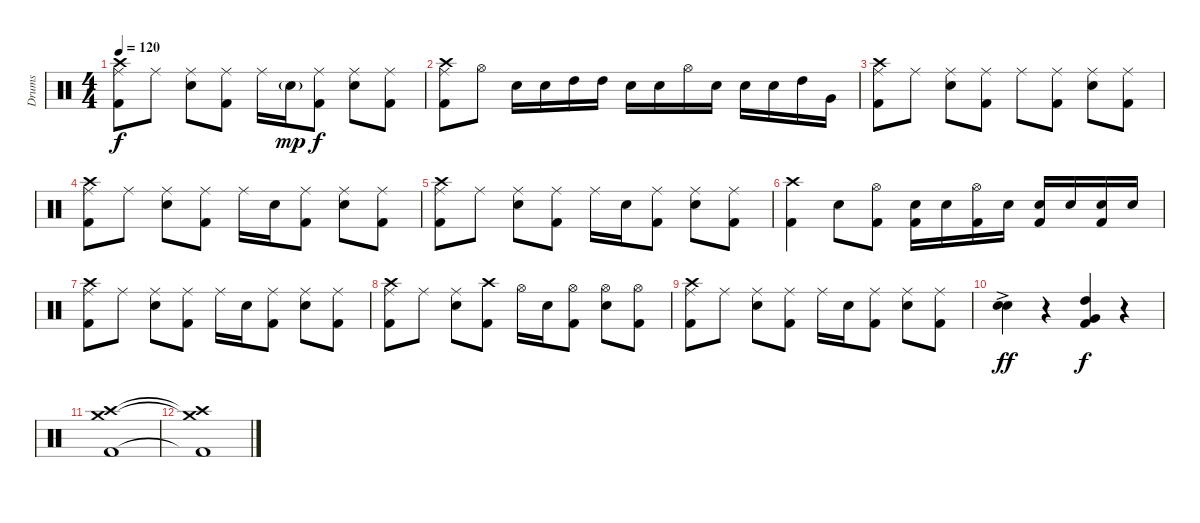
\track ("Drums" "Drums") {instrument percussion}
\staff {score}
\articulation defaults
\ts (4 4)
\tempo 120
\clef neutral
\ks c
("Kick (hit) 2" "Ride (middle)" "Crash high (hit)").8{dy f} "Ride (middle)".8 ("Electric Snare (hit)" "Ride (middle)").8 ("Kick (hit) 2" "Ride (middle)").8 "Ride (middle)".16 "Electric Snare (hit)"{g}.16{dy mp} ("Kick (hit) 2" "Ride (middle)").8{dy f} ("Electric Snare (hit)" "Ride (middle)").8 ("Kick (hit) 2" "Ride (middle)").8 |
("Kick (hit) 2" "Ride (middle)" "Crash high (hit)").8 "Hi-Hat (open)".8 "Electric Snare (hit)".16 "Electric Snare (hit)".16 "High Tom (hit)".16 "High Tom (hit)".16 "Electric Snare (hit)".16 "Electric Snare (hit)".16 "Hi-Hat (open)".16 "Electric Snare (hit)".16 "Electric Snare (hit)".16 "Electric Snare (hit)".16 "High Tom (hit)".16 "Very Low Tom (hit)".16 |
("Kick (hit) 2" "Ride (middle)" "Crash high (hit)").8 "Ride (middle)".8 ("Electric Snare (hit)" "Ride (middle)").8 ("Kick (hit) 2" "Ride (middle)").8 "Ride (middle)".8 ("Kick (hit) 2" "Ride (middle)").8 ("Electric Snare (hit)" "Ride (middle)").8 ("Kick (hit) 2" "Ride (middle)").8 |
("Kick (hit) 2" "Ride (middle)" "Crash high (hit)").8 "Ride (middle)".8 ("Electric Snare (hit)" "Ride (middle)").8 ("Kick (hit) 2" "Ride (middle)").8 "Ride (middle)".16 "Electric Snare (hit)".16 ("Kick (hit) 2" "Ride (middle)").8 ("Electric Snare (hit)" "Ride (middle)").8 ("Kick (hit) 2" "Ride (middle)").8 |
("Kick (hit) 2" "Ride (middle)" "Crash high (hit)").8 "Ride (middle)".8 ("Electric Snare (hit)" "Ride (middle)").8 ("Kick (hit) 2" "Ride (middle)").8 "Ride (middle)".16 "Electric Snare (hit)".16 ("Kick (hit) 2" "Ride (middle)").8 ("Electric Snare (hit)" "Ride (middle)").8 ("Kick (hit) 2" "Ride (middle)").8 |
("Kick (hit) 2" "Crash high (hit)").4 "Electric Snare (hit)".8 ("Kick (hit) 2" "Hi-Hat (open)").8 ("Kick (hit) 2" "Electric Snare (hit)").16 "Electric Snare (hit)".16 ("Kick (hit) 2" "Hi-Hat (open)").16 "Electric Snare (hit)".16 ("Kick (hit) 2" "Electric Snare (hit)").16 "Electric Snare (hit)".16 ("Kick (hit) 2" "Electric Snare (hit)").16 "Electric Snare (hit)".16 |
("Kick (hit) 2" "Ride (middle)" "Crash high (hit)").8 "Ride (middle)".8 ("Electric Snare (hit)" "Ride (middle)").8 ("Kick (hit) 2" "Ride (middle)").8 "Ride (middle)".16 "Electric Snare (hit)".16 ("Kick (hit) 2" "Ride (middle)").8 ("Electric Snare (hit)" "Ride (middle)").8 ("Kick (hit) 2" "Ride (middle)").8 |
("Kick (hit) 2" "Ride (middle)" "Crash high (hit)").8 "Ride (middle)".8 ("Electric Snare (hit)" "Ride (middle)").8 ("Kick (hit) 2" "Crash high (hit)").8 "Hi-Hat (open)".16 "Electric Snare (hit)".16 ("Kick (hit) 2" "Hi-Hat (open)").8 ("Electric Snare (hit)" "Hi-Hat (open)").8 ("Kick (hit) 2" "Hi-Hat (open)").8 |
("Kick (hit) 2" "Ride (middle)" "Crash high (hit)").8 "Ride (middle)".8 ("Electric Snare (hit)" "Ride (middle)").8 ("Kick (hit) 2" "Ride (middle)").8 "Ride (middle)".16 "Electric Snare (hit)".16 ("Kick (hit) 2" "Ride (middle)").8 ("Electric Snare (hit)" "Ride (middle)").8 ("Kick (hit) 2" "Ride (middle)").8 |
("Electric Snare (hit)"{ac} "Electric Snare (hit)"{ac}).4{dy ff} r.4 ("Kick (hit) 2" "High Tom (hit)" "Very Low Tom (hit)").4{dy f} r.4 |
("Kick (hit) 2" "Crash medium (hit)" "Crash high (hit)").1 |
("Kick (hit) 2"{t} "Crash medium (hit)"{t} "Crash high (hit)"{t}).1
